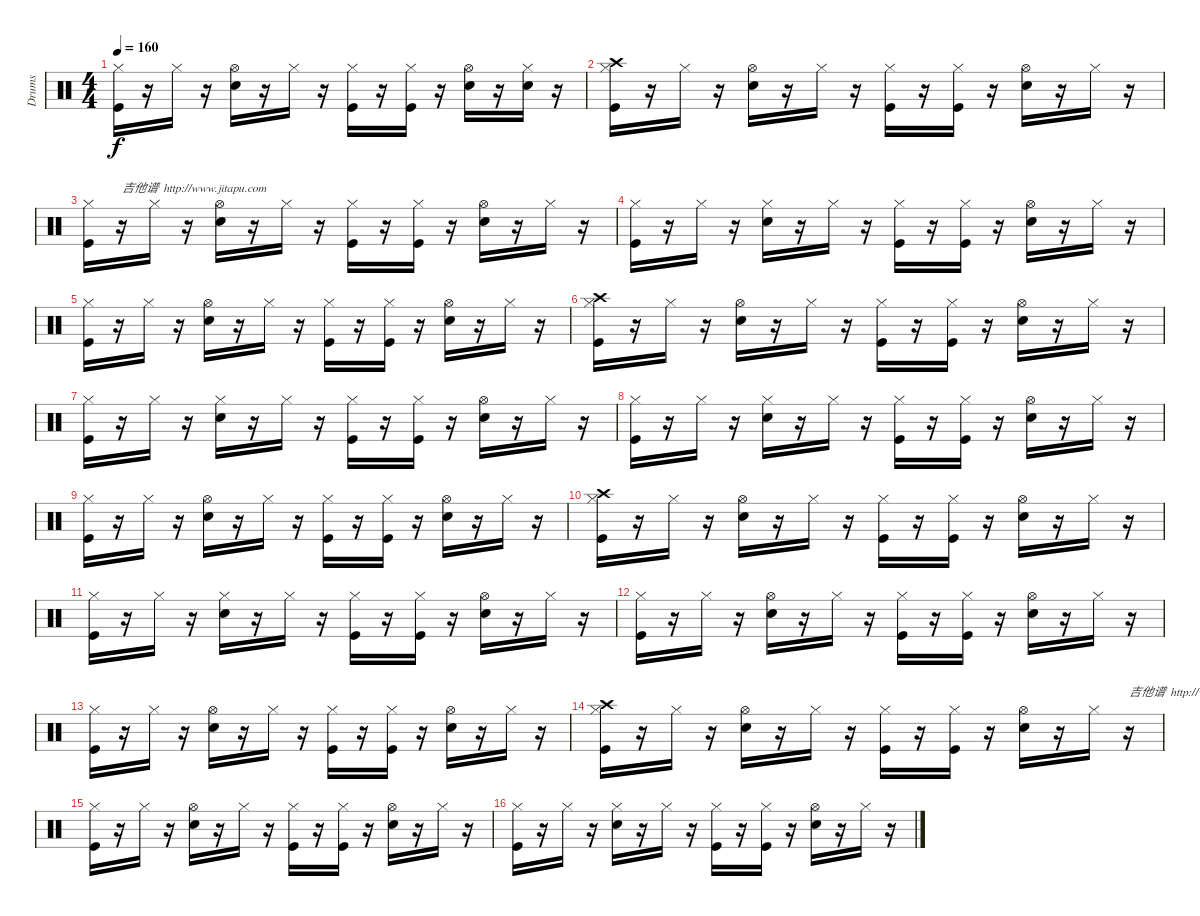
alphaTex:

\track ("Drums" "Drums") {instrument percussion}
\staff {score}
\articulation defaults
\ts (4 4)
\tempo 160
\clef neutral
\ks c
("Hi-Hat (closed)" "Kick (hit)").16{dy f} r.16 "Hi-Hat (closed)".16 r.16 ("Hi-Hat (open)" "Snare (hit) 2").16 r.16 "Hi-Hat (closed)".16 r.16 ("Hi-Hat (closed)" "Kick (hit)").16 r.16 ("Kick (hit)" "Hi-Hat (closed)").16 r.16 ("Hi-Hat (open)" "Snare (hit) 2").16 r.16 ("Snare (hit) 2" "Hi-Hat (closed)").16 r.16 |
("Crash high (hit)" "Hi-Hat (closed)" "Kick (hit)").16 r.16 "Hi-Hat (closed)".16 r.16 ("Hi-Hat (open)" "Snare (hit) 2").16 r.16 "Hi-Hat (closed)".16 r.16 ("Hi-Hat (closed)" "Kick (hit)").16 r.16 ("Kick (hit)" "Hi-Hat (closed)").16 r.16 ("Hi-Hat (open)" "Snare (hit) 2").16 r.16 "Hi-Hat (closed)".16 r.16 |
("Hi-Hat (closed)" "Kick (hit)").16 r.16{txt "吉他谱  http://www.jitapu.com"} "Hi-Hat (closed)".16 r.16 ("Hi-Hat (open)" "Snare (hit) 2").16 r.16 "Hi-Hat (closed)".16 r.16 ("Hi-Hat (closed)" "Kick (hit)").16 r.16 ("Kick (hit)" "Hi-Hat (closed)").16 r.16 ("Hi-Hat (open)" "Snare (hit) 2").16 r.16 "Hi-Hat (closed)".16 r.16 |
("Hi-Hat (closed)" "Kick (hit)").16 r.16 "Hi-Hat (closed)".16 r.16 ("Hi-Hat (closed)" "Snare (hit) 2").16 r.16 "Hi-Hat (closed)".16 r.16 ("Hi-Hat (closed)" "Kick (hit)").16 r.16 ("Kick (hit)" "Hi-Hat (closed)").16 r.16 ("Hi-Hat (open)" "Snare (hit) 2").16 r.16 "Hi-Hat (closed)".16 r.16 |
("Hi-Hat (closed)" "Kick (hit)").16 r.16 "Hi-Hat (closed)".16 r.16 ("Hi-Hat (open)" "Snare (hit) 2").16 r.16 "Hi-Hat (closed)".16 r.16 ("Hi-Hat (closed)" "Kick (hit)").16 r.16 ("Kick (hit)" "Hi-Hat (closed)").16 r.16 ("Hi-Hat (open)" "Snare (hit) 2").16 r.16 "Hi-Hat (closed)".16 r.16 |
("Crash high (hit)" "Hi-Hat (closed)" "Kick (hit)").16 r.16 "Hi-Hat (closed)".16 r.16 ("Hi-Hat (open)" "Snare (hit) 2").16 r.16 "Hi-Hat (closed)".16 r.16 ("Hi-Hat (closed)" "Kick (hit)").16 r.16 ("Kick (hit)" "Hi-Hat (closed)").16 r.16 ("Hi-Hat (open)" "Snare (hit) 2").16 r.16 "Hi-Hat (closed)".16 r.16 |
("Hi-Hat (closed)" "Kick (hit)").16 r.16 "Hi-Hat (closed)".16 r.16 ("Hi-Hat (closed)" "Snare (hit) 2").16 r.16 "Hi-Hat (closed)".16 r.16 ("Hi-Hat (closed)" "Kick (hit)").16 r.16 ("Kick (hit)" "Hi-Hat (closed)").16 r.16 ("Hi-Hat (open)" "Snare (hit) 2").16 r.16 "Hi-Hat (closed)".16 r.16 |
("Hi-Hat (closed)" "Kick (hit)").16 r.16 "Hi-Hat (closed)".16 r.16 ("Hi-Hat (closed)" "Snare (hit) 2").16 r.16 "Hi-Hat (closed)".16 r.16 ("Hi-Hat (closed)" "Kick (hit)").16 r.16 ("Kick (hit)" "Hi-Hat (closed)").16 r.16 ("Hi-Hat (open)" "Snare (hit) 2").16 r.16 "Hi-Hat (closed)".16 r.16 |
("Hi-Hat (closed)" "Kick (hit)").16 r.16 "Hi-Hat (closed)".16 r.16 ("Hi-Hat (open)" "Snare (hit) 2").16 r.16 "Hi-Hat (closed)".16 r.16 ("Hi-Hat (closed)" "Kick (hit)").16 r.16 ("Kick (hit)" "Hi-Hat (closed)").16 r.16 ("Hi-Hat (open)" "Snare (hit) 2").16 r.16 "Hi-Hat (closed)".16 r.16 |
("Crash high (hit)" "Hi-Hat (closed)" "Kick (hit)").16 r.16 "Hi-Hat (closed)".16 r.16 ("Hi-Hat (open)" "Snare (hit) 2").16 r.16 "Hi-Hat (closed)".16 r.16 ("Hi-Hat (closed)" "Kick (hit)").16 r.16 ("Kick (hit)" "Hi-Hat (closed)").16 r.16 ("Hi-Hat (open)" "Snare (hit) 2").16 r.16 "Hi-Hat (closed)".16 r.16 |
("Hi-Hat (closed)" "Kick (hit)").16 r.16 "Hi-Hat (closed)".16 r.16 ("Hi-Hat (closed)" "Snare (hit) 2").16 r.16 "Hi-Hat (closed)".16 r.16 ("Hi-Hat (closed)" "Kick (hit)").16 r.16 ("Kick (hit)" "Hi-Hat (closed)").16 r.16 ("Hi-Hat (open)" "Snare (hit) 2").16 r.16 "Hi-Hat (closed)".16 r.16 |
("Hi-Hat (closed)" "Kick (hit)").16 r.16 "Hi-Hat (closed)".16 r.16 ("Hi-Hat (open)" "Snare (hit) 2").16 r.16 "Hi-Hat (closed)".16 r.16 ("Hi-Hat (closed)" "Kick (hit)").16 r.16 ("Kick (hit)" "Hi-Hat (closed)").16 r.16 ("Hi-Hat (open)" "Snare (hit) 2").16 r.16 "Hi-Hat (closed)".16 r.16 |
("Hi-Hat (closed)" "Kick (hit)").16 r.16 "Hi-Hat (closed)".16 r.16 ("Hi-Hat (open)" "Snare (hit) 2").16 r.16 "Hi-Hat (closed)".16 r.16 ("Hi-Hat (closed)" "Kick (hit)").16 r.16 ("Kick (hit)" "Hi-Hat (closed)").16 r.16 ("Hi-Hat (open)" "Snare (hit) 2").16 r.16 "Hi-Hat (closed)".16 r.16 |
("Crash high (hit)" "Hi-Hat (closed)" "Kick (hit)").16 r.16 "Hi-Hat (closed)".16 r.16 ("Hi-Hat (open)" "Snare (hit) 2").16 r.16 "Hi-Hat (closed)".16 r.16 ("Hi-Hat (closed)" "Kick (hit)").16 r.16 ("Kick (hit)" "Hi-Hat (closed)").16 r.16 ("Hi-Hat (open)" "Snare (hit) 2").16 r.16 "Hi-Hat (closed)".16 r.16{txt "吉他谱  http://www.jitapu.com"} |
("Hi-Hat (closed)" "Kick (hit)").16 r.16 "Hi-Hat (closed)".16 r.16 ("Hi-Hat (open)" "Snare (hit) 2").16 r.16 "Hi-Hat (closed)".16 r.16 ("Hi-Hat (closed)" "Kick (hit)").16 r.16 ("Kick (hit)" "Hi-Hat (closed)").16 r.16 ("Hi-Hat (open)" "Snare (hit) 2").16 r.16 "Hi-Hat (closed)".16 r.16 |
("Hi-Hat (closed)" "Kick (hit)").16 r.16 "Hi-Hat (closed)".16 r.16 ("Hi-Hat (closed)" "Snare (hit) 2").16 r.16 "Hi-Hat (closed)".16 r.16 ("Hi-Hat (closed)" "Kick (hit)").16 r.16 ("Kick (hit)" "Hi-Hat (closed)").16 r.16 ("Hi-Hat (open)" "Snare (hit) 2").16 r.16 "Hi-Hat (closed)".16 r.16
